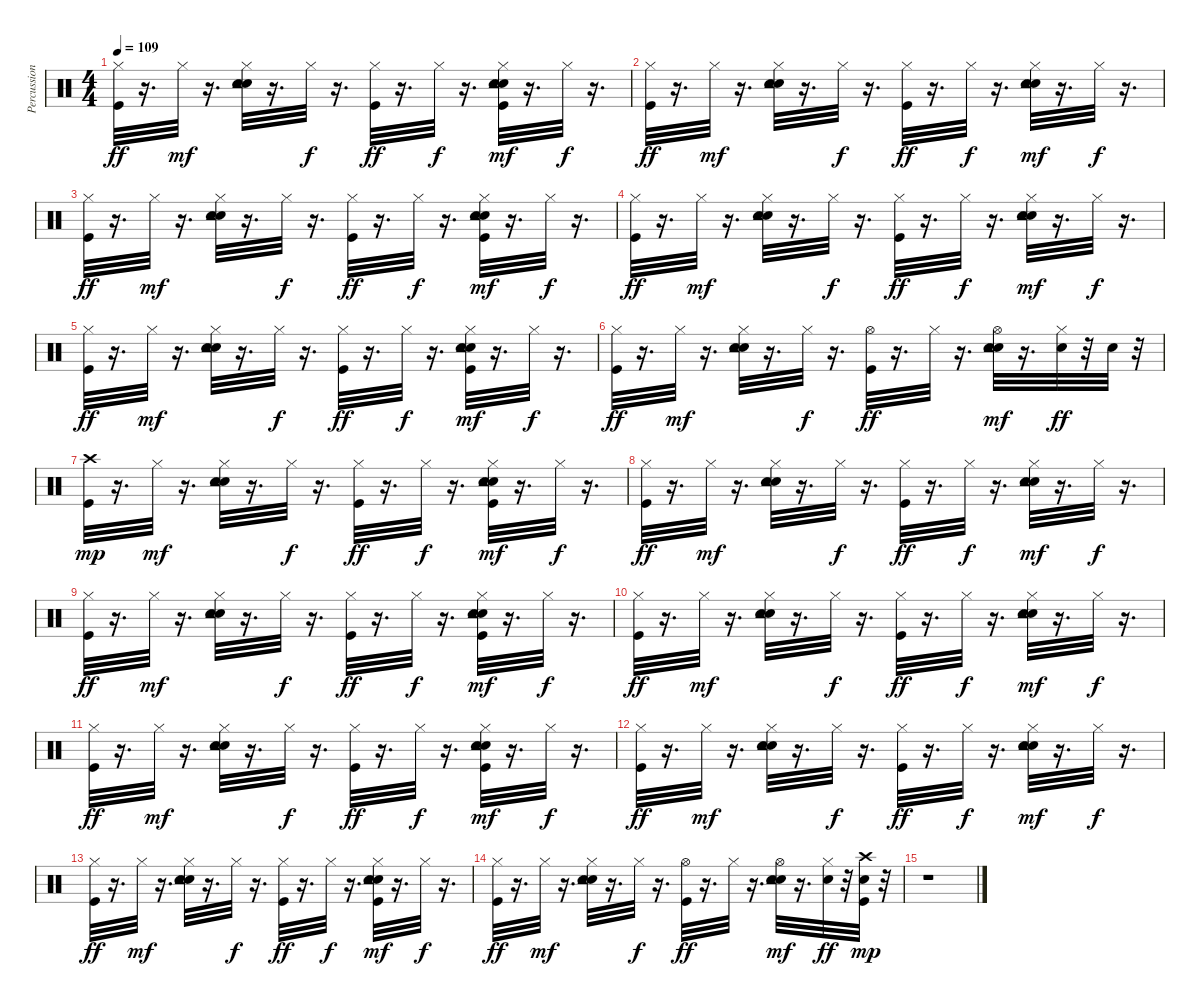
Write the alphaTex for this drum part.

\track ("Percussion" "Percussion") {instrument percussion}
\staff {score}
\articulation defaults
\ts (4 4)
\tempo 109
\clef neutral
\ks c
("Kick (hit)" "Hi-Hat (closed)").32{dy ff} r.16{d} "Hi-Hat (closed)".32{dy mf} r.16{d} ("Snare (hit) 2" "Hand Clap (hit)" "Hi-Hat (closed)" "Tambourine (hit)").32 r.16{d} "Hi-Hat (closed)".32{dy f} r.16{d} ("Kick (hit)" "Hi-Hat (closed)").32{dy ff} r.16{d} "Hi-Hat (closed)".32{dy f} r.16{d} ("Kick (hit)" "Snare (hit) 2" "Hand Clap (hit)" "Hi-Hat (closed)" "Tambourine (hit)").32{dy mf} r.16{d} "Hi-Hat (closed)".32{dy f} r.16{d} |
("Kick (hit)" "Hi-Hat (closed)").32{dy ff} r.16{d} "Hi-Hat (closed)".32{dy mf} r.16{d} ("Snare (hit) 2" "Hand Clap (hit)" "Hi-Hat (closed)" "Tambourine (hit)").32 r.16{d} "Hi-Hat (closed)".32{dy f} r.16{d} ("Kick (hit)" "Hi-Hat (closed)").32{dy ff} r.16{d} "Hi-Hat (closed)".32{dy f} r.16{d} ("Snare (hit) 2" "Hand Clap (hit)" "Hi-Hat (closed)" "Tambourine (hit)").32{dy mf} r.16{d} "Hi-Hat (closed)".32{dy f} r.16{d} |
("Kick (hit)" "Hi-Hat (closed)").32{dy ff} r.16{d} "Hi-Hat (closed)".32{dy mf} r.16{d} ("Snare (hit) 2" "Hand Clap (hit)" "Hi-Hat (closed)" "Tambourine (hit)").32 r.16{d} "Hi-Hat (closed)".32{dy f} r.16{d} ("Kick (hit)" "Hi-Hat (closed)").32{dy ff} r.16{d} "Hi-Hat (closed)".32{dy f} r.16{d} ("Kick (hit)" "Snare (hit) 2" "Hand Clap (hit)" "Hi-Hat (closed)" "Tambourine (hit)").32{dy mf} r.16{d} "Hi-Hat (closed)".32{dy f} r.16{d} |
("Kick (hit)" "Hi-Hat (closed)").32{dy ff} r.16{d} "Hi-Hat (closed)".32{dy mf} r.16{d} ("Snare (hit) 2" "Hand Clap (hit)" "Hi-Hat (closed)" "Tambourine (hit)").32 r.16{d} "Hi-Hat (closed)".32{dy f} r.16{d} ("Kick (hit)" "Hi-Hat (closed)").32{dy ff} r.16{d} "Hi-Hat (closed)".32{dy f} r.16{d} ("Snare (hit) 2" "Hand Clap (hit)" "Hi-Hat (closed)" "Tambourine (hit)").32{dy mf} r.16{d} "Hi-Hat (closed)".32{dy f} r.16{d} |
("Kick (hit)" "Hi-Hat (closed)").32{dy ff} r.16{d} "Hi-Hat (closed)".32{dy mf} r.16{d} ("Snare (hit) 2" "Hand Clap (hit)" "Hi-Hat (closed)" "Tambourine (hit)").32 r.16{d} "Hi-Hat (closed)".32{dy f} r.16{d} ("Kick (hit)" "Hi-Hat (closed)").32{dy ff} r.16{d} "Hi-Hat (closed)".32{dy f} r.16{d} ("Kick (hit)" "Snare (hit) 2" "Hand Clap (hit)" "Hi-Hat (closed)" "Tambourine (hit)").32{dy mf} r.16{d} "Hi-Hat (closed)".32{dy f} r.16{d} |
("Kick (hit)" "Hi-Hat (closed)").32{dy ff} r.16{d} "Hi-Hat (closed)".32{dy mf} r.16{d} ("Snare (hit) 2" "Hand Clap (hit)" "Hi-Hat (closed)" "Tambourine (hit)").32 r.16{d} "Hi-Hat (closed)".32{dy f} r.16{d} ("Kick (hit)" "Hi-Hat (open)").32{dy ff} r.16{d} "Hi-Hat (closed)".32 r.16{d} ("Snare (hit) 2" "Hand Clap (hit)" "Hi-Hat (open)" "Tambourine (hit)").32{dy mf} r.16{d} ("Snare (hit) 2" "Hi-Hat (closed)").32{dy ff} r.32 "Snare (hit) 2".32 r.32 |
("Kick (hit)" "Crash high (hit)").32{dy mp} r.16{d} "Hi-Hat (closed)".32{dy mf} r.16{d} ("Snare (hit) 2" "Hand Clap (hit)" "Hi-Hat (closed)" "Tambourine (hit)").32 r.16{d} "Hi-Hat (closed)".32{dy f} r.16{d} ("Kick (hit)" "Hi-Hat (closed)").32{dy ff} r.16{d} "Hi-Hat (closed)".32{dy f} r.16{d} ("Kick (hit)" "Snare (hit) 2" "Hand Clap (hit)" "Hi-Hat (closed)" "Tambourine (hit)").32{dy mf} r.16{d} "Hi-Hat (closed)".32{dy f} r.16{d} |
("Kick (hit)" "Hi-Hat (closed)").32{dy ff} r.16{d} "Hi-Hat (closed)".32{dy mf} r.16{d} ("Snare (hit) 2" "Hand Clap (hit)" "Hi-Hat (closed)" "Tambourine (hit)").32 r.16{d} "Hi-Hat (closed)".32{dy f} r.16{d} ("Kick (hit)" "Hi-Hat (closed)").32{dy ff} r.16{d} "Hi-Hat (closed)".32{dy f} r.16{d} ("Snare (hit) 2" "Hand Clap (hit)" "Hi-Hat (closed)" "Tambourine (hit)").32{dy mf} r.16{d} "Hi-Hat (closed)".32{dy f} r.16{d} |
("Kick (hit)" "Hi-Hat (closed)").32{dy ff} r.16{d} "Hi-Hat (closed)".32{dy mf} r.16{d} ("Snare (hit) 2" "Hand Clap (hit)" "Hi-Hat (closed)" "Tambourine (hit)").32 r.16{d} "Hi-Hat (closed)".32{dy f} r.16{d} ("Kick (hit)" "Hi-Hat (closed)").32{dy ff} r.16{d} "Hi-Hat (closed)".32{dy f} r.16{d} ("Kick (hit)" "Snare (hit) 2" "Hand Clap (hit)" "Hi-Hat (closed)" "Tambourine (hit)").32{dy mf} r.16{d} "Hi-Hat (closed)".32{dy f} r.16{d} |
("Kick (hit)" "Hi-Hat (closed)").32{dy ff} r.16{d} "Hi-Hat (closed)".32{dy mf} r.16{d} ("Snare (hit) 2" "Hand Clap (hit)" "Hi-Hat (closed)" "Tambourine (hit)").32 r.16{d} "Hi-Hat (closed)".32{dy f} r.16{d} ("Kick (hit)" "Hi-Hat (closed)").32{dy ff} r.16{d} "Hi-Hat (closed)".32{dy f} r.16{d} ("Snare (hit) 2" "Hand Clap (hit)" "Hi-Hat (closed)" "Tambourine (hit)").32{dy mf} r.16{d} "Hi-Hat (closed)".32{dy f} r.16{d} |
("Kick (hit)" "Hi-Hat (closed)").32{dy ff} r.16{d} "Hi-Hat (closed)".32{dy mf} r.16{d} ("Snare (hit) 2" "Hand Clap (hit)" "Hi-Hat (closed)" "Tambourine (hit)").32 r.16{d} "Hi-Hat (closed)".32{dy f} r.16{d} ("Kick (hit)" "Hi-Hat (closed)").32{dy ff} r.16{d} "Hi-Hat (closed)".32{dy f} r.16{d} ("Kick (hit)" "Snare (hit) 2" "Hand Clap (hit)" "Hi-Hat (closed)" "Tambourine (hit)").32{dy mf} r.16{d} "Hi-Hat (closed)".32{dy f} r.16{d} |
("Kick (hit)" "Hi-Hat (closed)").32{dy ff} r.16{d} "Hi-Hat (closed)".32{dy mf} r.16{d} ("Snare (hit) 2" "Hand Clap (hit)" "Hi-Hat (closed)" "Tambourine (hit)").32 r.16{d} "Hi-Hat (closed)".32{dy f} r.16{d} ("Kick (hit)" "Hi-Hat (closed)").32{dy ff} r.16{d} "Hi-Hat (closed)".32{dy f} r.16{d} ("Snare (hit) 2" "Hand Clap (hit)" "Hi-Hat (closed)" "Tambourine (hit)").32{dy mf} r.16{d} "Hi-Hat (closed)".32{dy f} r.16{d} |
("Kick (hit)" "Hi-Hat (closed)").32{dy ff} r.16{d} "Hi-Hat (closed)".32{dy mf} r.16{d} ("Snare (hit) 2" "Hand Clap (hit)" "Hi-Hat (closed)" "Tambourine (hit)").32 r.16{d} "Hi-Hat (closed)".32{dy f} r.16{d} ("Kick (hit)" "Hi-Hat (closed)").32{dy ff} r.16{d} "Hi-Hat (closed)".32{dy f} r.16{d} ("Kick (hit)" "Snare (hit) 2" "Hand Clap (hit)" "Hi-Hat (closed)" "Tambourine (hit)").32{dy mf} r.16{d} "Hi-Hat (closed)".32{dy f} r.16{d} |
("Kick (hit)" "Hi-Hat (closed)").32{dy ff} r.16{d} "Hi-Hat (closed)".32{dy mf} r.16{d} ("Snare (hit) 2" "Hand Clap (hit)" "Hi-Hat (closed)" "Tambourine (hit)").32 r.16{d} "Hi-Hat (closed)".32{dy f} r.16{d} ("Kick (hit)" "Hi-Hat (open)").32{dy ff} r.16{d} "Hi-Hat (closed)".32 r.16{d} ("Snare (hit) 2" "Hand Clap (hit)" "Hi-Hat (open)" "Tambourine (hit)").32{dy mf} r.16{d} ("Snare (hit) 2" "Hi-Hat (closed)").32{dy ff} r.32 ("Kick (hit)" "Snare (hit) 2" "Crash high (hit)").32{dy mp} r.32 |
r.1
